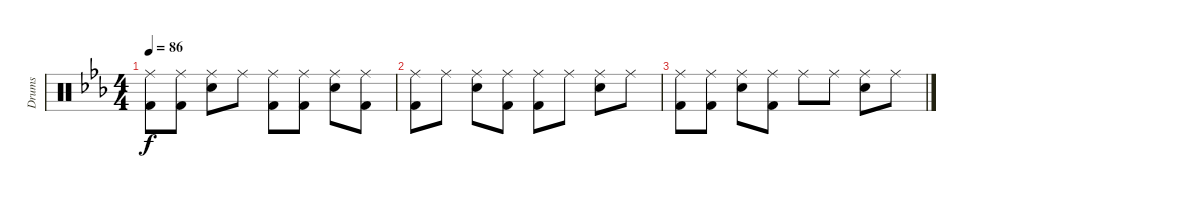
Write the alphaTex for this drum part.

\track ("Drums" "Drums") {instrument percussion}
\staff {score}
\articulation defaults
\ts (4 4)
\tempo 86
\clef neutral
\ks eb
("Ride (middle)" "Kick (hit) 2").8{dy f} ("Ride (middle)" "Kick (hit) 2").8 ("Ride (middle)" "Snare (hit) 2").8 "Ride (middle)".8 ("Ride (middle)" "Kick (hit) 2").8 ("Ride (middle)" "Kick (hit) 2").8 ("Ride (middle)" "Snare (hit) 2").8 ("Ride (middle)" "Kick (hit) 2").8 |
("Ride (middle)" "Kick (hit) 2").8 "Ride (middle)".8 ("Ride (middle)" "Snare (hit) 2").8 ("Ride (middle)" "Kick (hit) 2").8 ("Ride (middle)" "Kick (hit) 2").8 "Ride (middle)".8 ("Ride (middle)" "Snare (hit) 2").8 "Ride (middle)".8 |
("Ride (middle)" "Kick (hit) 2").8 ("Ride (middle)" "Kick (hit) 2").8 ("Ride (middle)" "Snare (hit) 2").8 ("Ride (middle)" "Kick (hit) 2").8 "Ride (middle)".8 "Ride (middle)".8 ("Ride (middle)" "Snare (hit) 2").8 "Ride (middle)".8
